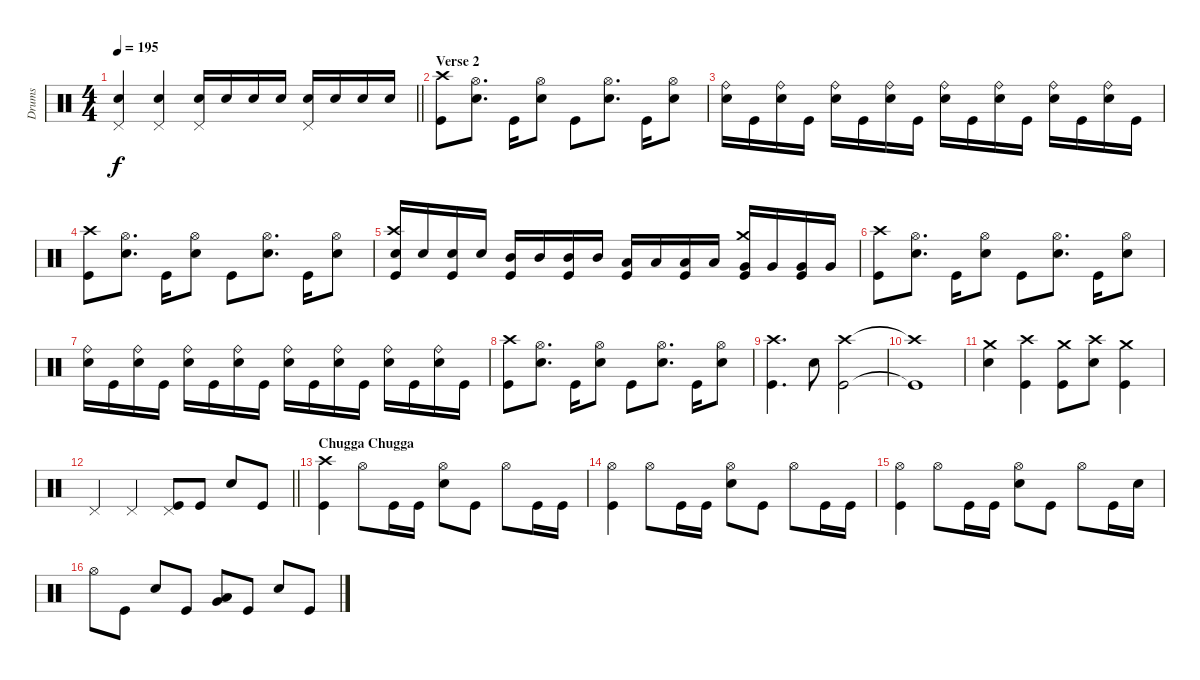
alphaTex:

\track ("Drums" "Drums") {instrument percussion}
\staff {score}
\articulation defaults
\ts (4 4)
\tempo 195
\clef neutral
\barLineRight lightlight
\ks c
("Pedal Hi-Hat (hit)" "Snare (hit) 2").4{dy f} ("Pedal Hi-Hat (hit)" "Snare (hit) 2").4 ("Pedal Hi-Hat (hit)" "Snare (hit) 2").16 "Snare (hit) 2".16 "Snare (hit) 2".16 "Snare (hit) 2".16 ("Pedal Hi-Hat (hit)" "Snare (hit) 2").16 "Snare (hit) 2".16 "Snare (hit) 2".16 "Snare (hit) 2".16 |
\section ("" "Verse 2")
("Crash high (hit)" "Kick (hit)").8 ("Hi-Hat (open)" "Snare (hit) 2").8{d} "Kick (hit)".16 ("Hi-Hat (open)" "Snare (hit) 2").8 "Kick (hit)".8 ("Hi-Hat (open)" "Snare (hit) 2").8{d} "Kick (hit)".16 ("Hi-Hat (open)" "Snare (hit) 2").8 |
("Ride (bell)" "Snare (hit) 2").16 "Kick (hit)".16 ("Ride (bell)" "Snare (hit) 2").16 "Kick (hit)".16 ("Ride (bell)" "Snare (hit) 2").16 "Kick (hit)".16 ("Ride (bell)" "Snare (hit) 2").16 "Kick (hit)".16 ("Ride (bell)" "Snare (hit) 2").16 "Kick (hit)".16 ("Ride (bell)" "Snare (hit) 2").16 "Kick (hit)".16 ("Ride (bell)" "Snare (hit) 2").16 "Kick (hit)".16 ("Ride (bell)" "Snare (hit) 2").16 "Kick (hit)".16 |
("Crash high (hit)" "Kick (hit)").8 ("Hi-Hat (open)" "Snare (hit) 2").8{d} "Kick (hit)".16 ("Hi-Hat (open)" "Snare (hit) 2").8 "Kick (hit)".8 ("Hi-Hat (open)" "Snare (hit) 2").8{d} "Kick (hit)".16 ("Hi-Hat (open)" "Snare (hit) 2").8 |
("Crash high (hit)" "Snare (hit) 2" "Kick (hit)").16 "Snare (hit) 2".16 ("Snare (hit) 2" "Kick (hit)").16 "Snare (hit) 2".16 ("Mid Tom (hit)" "Kick (hit)").16 "Mid Tom (hit)".16 ("Mid Tom (hit)" "Kick (hit)").16 "Mid Tom (hit)".16 ("Low Tom (hit)" "Kick (hit)").16 "Low Tom (hit)".16 ("Low Tom (hit)" "Kick (hit)").16 "Low Tom (hit)".16 ("Crash medium (hit)" "Very Low Tom (hit)" "Kick (hit)").16 "Very Low Tom (hit)".16 ("Very Low Tom (hit)" "Kick (hit)").16 "Very Low Tom (hit)".16 |
("Crash high (hit)" "Kick (hit)").8 ("Hi-Hat (open)" "Snare (hit) 2").8{d} "Kick (hit)".16 ("Hi-Hat (open)" "Snare (hit) 2").8 "Kick (hit)".8 ("Hi-Hat (open)" "Snare (hit) 2").8{d} "Kick (hit)".16 ("Hi-Hat (open)" "Snare (hit) 2").8 |
("Ride (bell)" "Snare (hit) 2").16 "Kick (hit)".16 ("Ride (bell)" "Snare (hit) 2").16 "Kick (hit)".16 ("Ride (bell)" "Snare (hit) 2").16 "Kick (hit)".16 ("Ride (bell)" "Snare (hit) 2").16 "Kick (hit)".16 ("Ride (bell)" "Snare (hit) 2").16 "Kick (hit)".16 ("Ride (bell)" "Snare (hit) 2").16 "Kick (hit)".16 ("Ride (bell)" "Snare (hit) 2").16 "Kick (hit)".16 ("Ride (bell)" "Snare (hit) 2").16 "Kick (hit)".16 |
("Crash high (hit)" "Kick (hit)").8 ("Hi-Hat (open)" "Snare (hit) 2").8{d} "Kick (hit)".16 ("Hi-Hat (open)" "Snare (hit) 2").8 "Kick (hit)".8 ("Hi-Hat (open)" "Snare (hit) 2").8{d} "Kick (hit)".16 ("Hi-Hat (open)" "Snare (hit) 2").8 |
("Crash high (hit)" "Kick (hit)").4{d} "Snare (hit) 2".8 ("Crash high (hit)" "Kick (hit)").2 |
("Crash high (hit)"{t} "Kick (hit)"{t}).1 |
("Crash medium (hit)" "Snare (hit) 2").4 ("Crash high (hit)" "Kick (hit)").4 ("Crash medium (hit)" "Kick (hit)").8 ("Crash high (hit)" "Snare (hit) 2").8 ("Crash medium (hit)" "Kick (hit)").4 |
\barLineRight lightlight "Pedal Hi-Hat (hit)".4 "Pedal Hi-Hat (hit)".4
("Pedal Hi-Hat (hit)" "Kick (hit)").8 "Kick (hit)".8 "Snare (hit) 2".8 "Kick (hit)".8 |
\section ("" "Chugga Chugga")
("Crash high (hit)" "Kick (hit)").4 "Hi-Hat (open)".8 "Kick (hit)".16 "Kick (hit)".16 ("Hi-Hat (open)" "Snare (hit) 2").8 "Kick (hit)".8 "Hi-Hat (open)".8 "Kick (hit)".16 "Kick (hit)".16 |
("Hi-Hat (open)" "Kick (hit)").4 "Hi-Hat (open)".8 "Kick (hit)".16 "Kick (hit)".16 ("Hi-Hat (open)" "Snare (hit) 2").8 "Kick (hit)".8 "Hi-Hat (open)".8 "Kick (hit)".16 "Kick (hit)".16 |
("Hi-Hat (open)" "Kick (hit)").4 "Hi-Hat (open)".8 "Kick (hit)".16 "Kick (hit)".16 ("Hi-Hat (open)" "Snare (hit) 2").8 "Kick (hit)".8 "Hi-Hat (open)".8 "Kick (hit)".16 "Snare (hit) 2".16 |
"Hi-Hat (open)".8 "Kick (hit)".8 "Snare (hit) 2".8 "Kick (hit)".8 ("Low Tom (hit)" "Very Low Tom (hit)").8 "Kick (hit)".8 "Snare (hit) 2".8 "Kick (hit)".8
